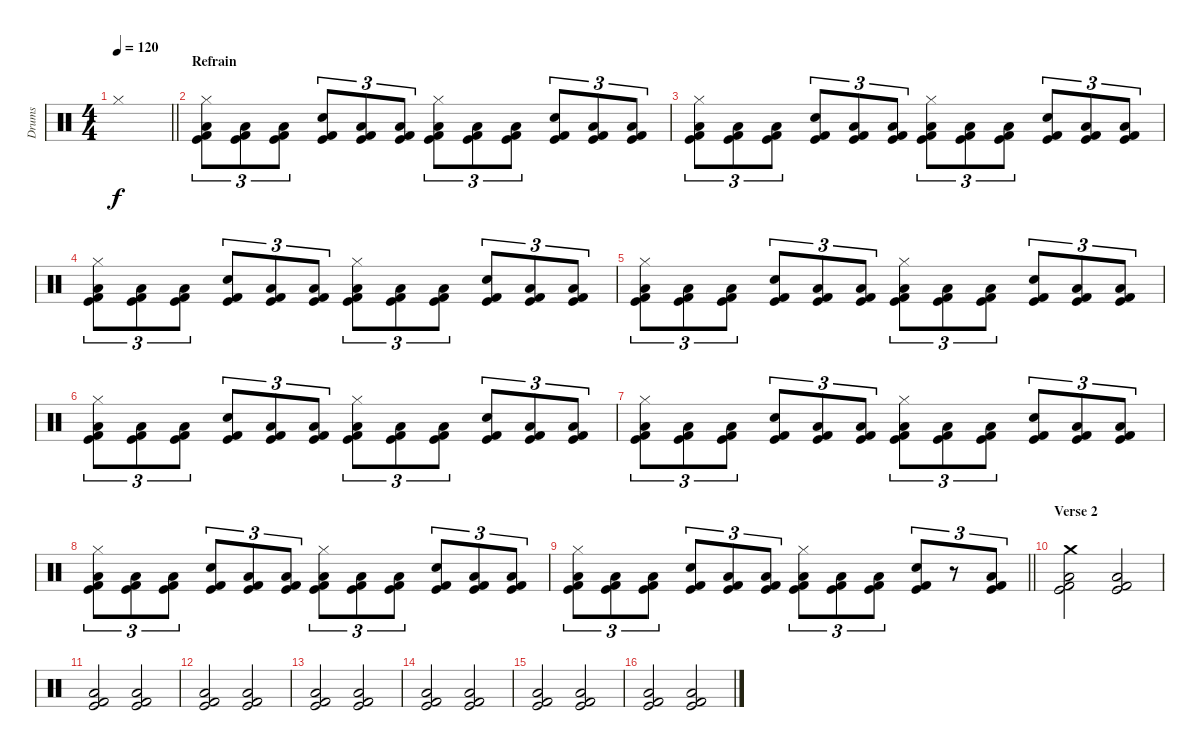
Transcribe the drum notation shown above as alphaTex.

\track ("Drums" "Drums") {instrument percussion}
\staff {score}
\articulation defaults
\ts (4 4)
\tempo 120
\clef neutral
\barLineRight lightlight
\ks c "Hi-Hat (closed)".1{dy f}
|
\section ("" "Refrain")
("Hi-Hat (closed)" "Low Floor Tom (hit)" "Kick (hit) 2" "Kick (hit)").8{tu (3 2)} ("Low Floor Tom (hit)" "Kick (hit) 2" "Kick (hit)").8{tu (3 2)} ("Low Floor Tom (hit)" "Kick (hit) 2" "Kick (hit)").8{tu (3 2)} ("Snare (hit) 2" "Kick (hit) 2" "Kick (hit)").8{tu (3 2)} ("Low Floor Tom (hit)" "Kick (hit) 2" "Kick (hit)").8{tu (3 2)} ("Low Floor Tom (hit)" "Kick (hit) 2" "Kick (hit)").8{tu (3 2)} ("Hi-Hat (closed)" "Low Floor Tom (hit)" "Kick (hit) 2" "Kick (hit)").8{tu (3 2)} ("Low Floor Tom (hit)" "Kick (hit) 2" "Kick (hit)").8{tu (3 2)} ("Low Floor Tom (hit)" "Kick (hit) 2" "Kick (hit)").8{tu (3 2)} ("Snare (hit) 2" "Kick (hit) 2" "Kick (hit)").8{tu (3 2)} ("Low Floor Tom (hit)" "Kick (hit) 2" "Kick (hit)").8{tu (3 2)} ("Low Floor Tom (hit)" "Kick (hit) 2" "Kick (hit)").8{tu (3 2)} |
("Hi-Hat (closed)" "Low Floor Tom (hit)" "Kick (hit) 2" "Kick (hit)").8{tu (3 2)} ("Low Floor Tom (hit)" "Kick (hit) 2" "Kick (hit)").8{tu (3 2)} ("Low Floor Tom (hit)" "Kick (hit) 2" "Kick (hit)").8{tu (3 2)} ("Snare (hit) 2" "Kick (hit) 2" "Kick (hit)").8{tu (3 2)} ("Low Floor Tom (hit)" "Kick (hit) 2" "Kick (hit)").8{tu (3 2)} ("Low Floor Tom (hit)" "Kick (hit) 2" "Kick (hit)").8{tu (3 2)} ("Hi-Hat (closed)" "Low Floor Tom (hit)" "Kick (hit) 2" "Kick (hit)").8{tu (3 2)} ("Low Floor Tom (hit)" "Kick (hit) 2" "Kick (hit)").8{tu (3 2)} ("Low Floor Tom (hit)" "Kick (hit) 2" "Kick (hit)").8{tu (3 2)} ("Snare (hit) 2" "Kick (hit) 2" "Kick (hit)").8{tu (3 2)} ("Low Floor Tom (hit)" "Kick (hit) 2" "Kick (hit)").8{tu (3 2)} ("Low Floor Tom (hit)" "Kick (hit) 2" "Kick (hit)").8{tu (3 2)} |
("Hi-Hat (closed)" "Low Floor Tom (hit)" "Kick (hit) 2" "Kick (hit)").8{tu (3 2)} ("Low Floor Tom (hit)" "Kick (hit) 2" "Kick (hit)").8{tu (3 2)} ("Low Floor Tom (hit)" "Kick (hit) 2" "Kick (hit)").8{tu (3 2)} ("Snare (hit) 2" "Kick (hit) 2" "Kick (hit)").8{tu (3 2)} ("Low Floor Tom (hit)" "Kick (hit) 2" "Kick (hit)").8{tu (3 2)} ("Low Floor Tom (hit)" "Kick (hit) 2" "Kick (hit)").8{tu (3 2)} ("Hi-Hat (closed)" "Low Floor Tom (hit)" "Kick (hit) 2" "Kick (hit)").8{tu (3 2)} ("Low Floor Tom (hit)" "Kick (hit) 2" "Kick (hit)").8{tu (3 2)} ("Low Floor Tom (hit)" "Kick (hit) 2" "Kick (hit)").8{tu (3 2)} ("Snare (hit) 2" "Kick (hit) 2" "Kick (hit)").8{tu (3 2)} ("Low Floor Tom (hit)" "Kick (hit) 2" "Kick (hit)").8{tu (3 2)} ("Low Floor Tom (hit)" "Kick (hit) 2" "Kick (hit)").8{tu (3 2)} |
("Hi-Hat (closed)" "Low Floor Tom (hit)" "Kick (hit) 2" "Kick (hit)").8{tu (3 2)} ("Low Floor Tom (hit)" "Kick (hit) 2" "Kick (hit)").8{tu (3 2)} ("Low Floor Tom (hit)" "Kick (hit) 2" "Kick (hit)").8{tu (3 2)} ("Snare (hit) 2" "Kick (hit) 2" "Kick (hit)").8{tu (3 2)} ("Low Floor Tom (hit)" "Kick (hit) 2" "Kick (hit)").8{tu (3 2)} ("Low Floor Tom (hit)" "Kick (hit) 2" "Kick (hit)").8{tu (3 2)} ("Hi-Hat (closed)" "Low Floor Tom (hit)" "Kick (hit) 2" "Kick (hit)").8{tu (3 2)} ("Low Floor Tom (hit)" "Kick (hit) 2" "Kick (hit)").8{tu (3 2)} ("Low Floor Tom (hit)" "Kick (hit) 2" "Kick (hit)").8{tu (3 2)} ("Snare (hit) 2" "Kick (hit) 2" "Kick (hit)").8{tu (3 2)} ("Low Floor Tom (hit)" "Kick (hit) 2" "Kick (hit)").8{tu (3 2)} ("Low Floor Tom (hit)" "Kick (hit) 2" "Kick (hit)").8{tu (3 2)} |
("Hi-Hat (closed)" "Low Floor Tom (hit)" "Kick (hit) 2" "Kick (hit)").8{tu (3 2)} ("Low Floor Tom (hit)" "Kick (hit) 2" "Kick (hit)").8{tu (3 2)} ("Low Floor Tom (hit)" "Kick (hit) 2" "Kick (hit)").8{tu (3 2)} ("Snare (hit) 2" "Kick (hit) 2" "Kick (hit)").8{tu (3 2)} ("Low Floor Tom (hit)" "Kick (hit) 2" "Kick (hit)").8{tu (3 2)} ("Low Floor Tom (hit)" "Kick (hit) 2" "Kick (hit)").8{tu (3 2)} ("Hi-Hat (closed)" "Low Floor Tom (hit)" "Kick (hit) 2" "Kick (hit)").8{tu (3 2)} ("Low Floor Tom (hit)" "Kick (hit) 2" "Kick (hit)").8{tu (3 2)} ("Low Floor Tom (hit)" "Kick (hit) 2" "Kick (hit)").8{tu (3 2)} ("Snare (hit) 2" "Kick (hit) 2" "Kick (hit)").8{tu (3 2)} ("Low Floor Tom (hit)" "Kick (hit) 2" "Kick (hit)").8{tu (3 2)} ("Low Floor Tom (hit)" "Kick (hit) 2" "Kick (hit)").8{tu (3 2)} |
("Hi-Hat (closed)" "Low Floor Tom (hit)" "Kick (hit) 2" "Kick (hit)").8{tu (3 2)} ("Low Floor Tom (hit)" "Kick (hit) 2" "Kick (hit)").8{tu (3 2)} ("Low Floor Tom (hit)" "Kick (hit) 2" "Kick (hit)").8{tu (3 2)} ("Snare (hit) 2" "Kick (hit) 2" "Kick (hit)").8{tu (3 2)} ("Low Floor Tom (hit)" "Kick (hit) 2" "Kick (hit)").8{tu (3 2)} ("Low Floor Tom (hit)" "Kick (hit) 2" "Kick (hit)").8{tu (3 2)} ("Hi-Hat (closed)" "Low Floor Tom (hit)" "Kick (hit) 2" "Kick (hit)").8{tu (3 2)} ("Low Floor Tom (hit)" "Kick (hit) 2" "Kick (hit)").8{tu (3 2)} ("Low Floor Tom (hit)" "Kick (hit) 2" "Kick (hit)").8{tu (3 2)} ("Snare (hit) 2" "Kick (hit) 2" "Kick (hit)").8{tu (3 2)} ("Low Floor Tom (hit)" "Kick (hit) 2" "Kick (hit)").8{tu (3 2)} ("Low Floor Tom (hit)" "Kick (hit) 2" "Kick (hit)").8{tu (3 2)} |
("Hi-Hat (closed)" "Low Floor Tom (hit)" "Kick (hit) 2" "Kick (hit)").8{tu (3 2)} ("Low Floor Tom (hit)" "Kick (hit) 2" "Kick (hit)").8{tu (3 2)} ("Low Floor Tom (hit)" "Kick (hit) 2" "Kick (hit)").8{tu (3 2)} ("Snare (hit) 2" "Kick (hit) 2" "Kick (hit)").8{tu (3 2)} ("Low Floor Tom (hit)" "Kick (hit) 2" "Kick (hit)").8{tu (3 2)} ("Low Floor Tom (hit)" "Kick (hit) 2" "Kick (hit)").8{tu (3 2)} ("Hi-Hat (closed)" "Low Floor Tom (hit)" "Kick (hit) 2" "Kick (hit)").8{tu (3 2)} ("Low Floor Tom (hit)" "Kick (hit) 2" "Kick (hit)").8{tu (3 2)} ("Low Floor Tom (hit)" "Kick (hit) 2" "Kick (hit)").8{tu (3 2)} ("Snare (hit) 2" "Kick (hit) 2" "Kick (hit)").8{tu (3 2)} ("Low Floor Tom (hit)" "Kick (hit) 2" "Kick (hit)").8{tu (3 2)} ("Low Floor Tom (hit)" "Kick (hit) 2" "Kick (hit)").8{tu (3 2)} |
\barLineRight lightlight
("Hi-Hat (closed)" "Low Floor Tom (hit)" "Kick (hit) 2" "Kick (hit)").8{tu (3 2)} ("Low Floor Tom (hit)" "Kick (hit) 2" "Kick (hit)").8{tu (3 2)} ("Low Floor Tom (hit)" "Kick (hit) 2" "Kick (hit)").8{tu (3 2)} ("Snare (hit) 2" "Kick (hit) 2" "Kick (hit)").8{tu (3 2)} ("Low Floor Tom (hit)" "Kick (hit) 2" "Kick (hit)").8{tu (3 2)} ("Low Floor Tom (hit)" "Kick (hit) 2" "Kick (hit)").8{tu (3 2)} ("Hi-Hat (closed)" "Low Floor Tom (hit)" "Kick (hit) 2" "Kick (hit)").8{tu (3 2)} ("Low Floor Tom (hit)" "Kick (hit) 2" "Kick (hit)").8{tu (3 2)} ("Low Floor Tom (hit)" "Kick (hit) 2" "Kick (hit)").8{tu (3 2)} ("Snare (hit) 2" "Kick (hit) 2" "Kick (hit)").8{tu (3 2)} r.8{tu (3 2)} ("Low Floor Tom (hit)" "Kick (hit) 2" "Kick (hit)").8{tu (3 2)} |
\section ("" "Verse 2")
("Crash medium (hit)" "Low Floor Tom (hit)" "Kick (hit) 2" "Kick (hit)").2 ("Low Floor Tom (hit)" "Kick (hit) 2" "Kick (hit)").2 |
("Low Floor Tom (hit)" "Kick (hit) 2" "Kick (hit)").2 ("Low Floor Tom (hit)" "Kick (hit) 2" "Kick (hit)").2 |
("Low Floor Tom (hit)" "Kick (hit) 2" "Kick (hit)").2 ("Low Floor Tom (hit)" "Kick (hit) 2" "Kick (hit)").2 |
("Low Floor Tom (hit)" "Kick (hit) 2" "Kick (hit)").2 ("Low Floor Tom (hit)" "Kick (hit) 2" "Kick (hit)").2 |
("Low Floor Tom (hit)" "Kick (hit) 2" "Kick (hit)").2 ("Low Floor Tom (hit)" "Kick (hit) 2" "Kick (hit)").2 |
("Low Floor Tom (hit)" "Kick (hit) 2" "Kick (hit)").2 ("Low Floor Tom (hit)" "Kick (hit) 2" "Kick (hit)").2 |
("Low Floor Tom (hit)" "Kick (hit) 2" "Kick (hit)").2 ("Low Floor Tom (hit)" "Kick (hit) 2" "Kick (hit)").2
